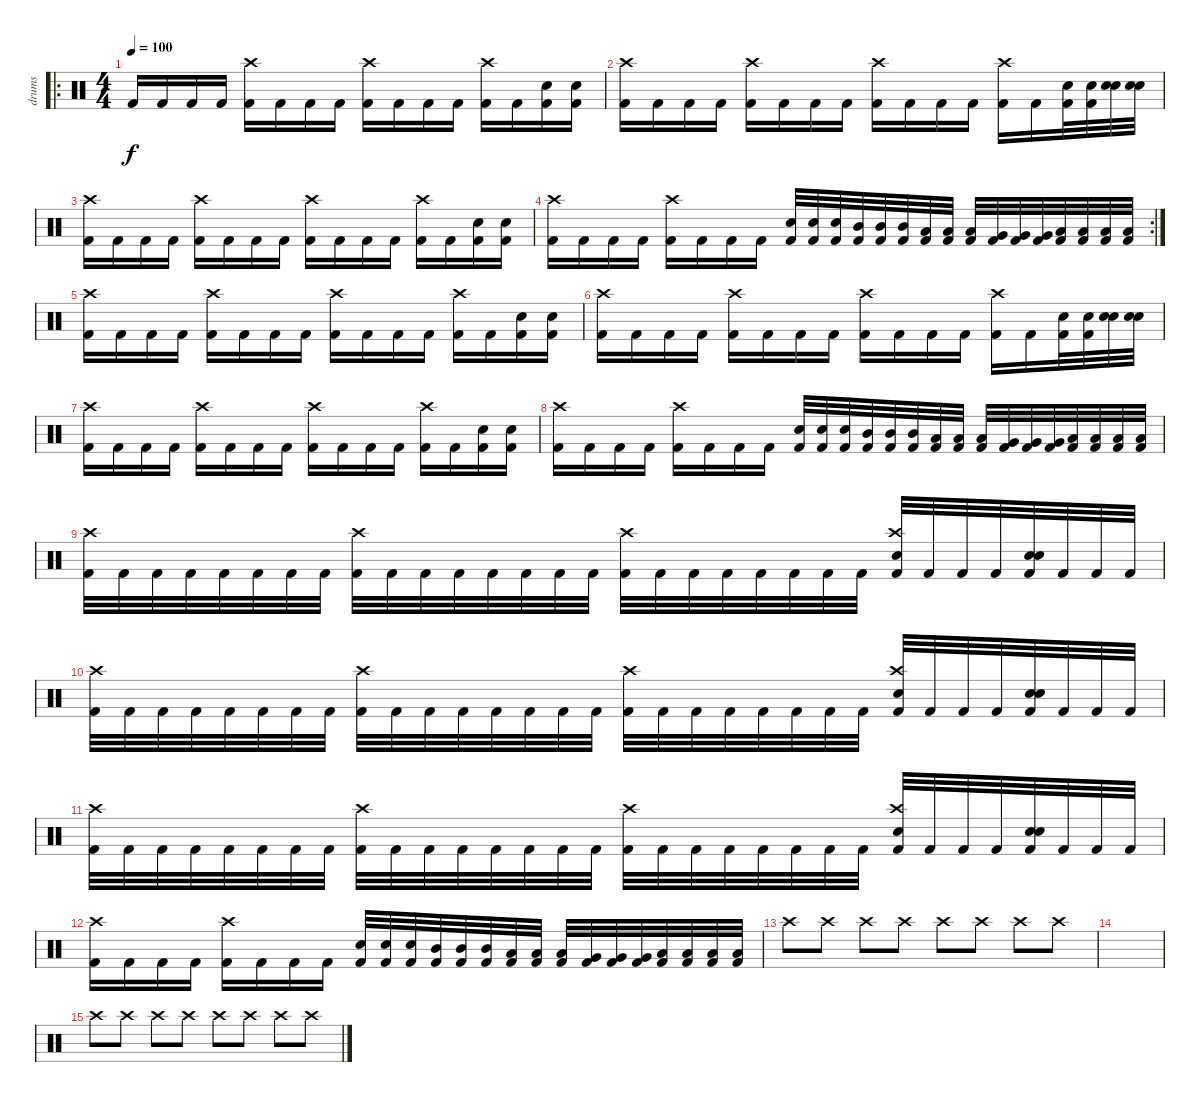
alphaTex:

\track ("drums " "drums ") {instrument percussion}
\staff {score}
\articulation defaults
\ro
\ts (4 4)
\tempo 100
\clef neutral
\ks c "Kick (hit) 2".16{dy f} "Kick (hit) 2".16 "Kick (hit) 2".16 "Kick (hit) 2".16
("Kick (hit) 2" "Crash high (hit)").16 "Kick (hit) 2".16 "Kick (hit) 2".16 "Kick (hit) 2".16 ("Kick (hit) 2" "Crash high (hit)").16 "Kick (hit) 2".16 "Kick (hit) 2".16 "Kick (hit) 2".16 ("Kick (hit) 2" "Crash high (hit)").16 "Kick (hit) 2".16 ("Kick (hit) 2" "Snare (hit) 2").16 ("Kick (hit) 2" "Snare (hit) 2").16 |
("Kick (hit) 2" "Crash high (hit)").16 "Kick (hit) 2".16 "Kick (hit) 2".16 "Kick (hit) 2".16 ("Kick (hit) 2" "Crash high (hit)").16 "Kick (hit) 2".16 "Kick (hit) 2".16 "Kick (hit) 2".16 ("Kick (hit) 2" "Crash high (hit)").16 "Kick (hit) 2".16 "Kick (hit) 2".16 "Kick (hit) 2".16 ("Kick (hit) 2" "Crash high (hit)").16 "Kick (hit) 2".16 ("Kick (hit) 2" "Snare (hit) 2").32 ("Kick (hit) 2" "Electric Snare (hit)").32 ("Snare (hit) 2" "Snare (hit) 2").32 ("Snare (hit) 2" "Electric Snare (hit)").32 |
("Kick (hit) 2" "Crash high (hit)").16 "Kick (hit) 2".16 "Kick (hit) 2".16 "Kick (hit) 2".16 ("Kick (hit) 2" "Crash high (hit)").16 "Kick (hit) 2".16 "Kick (hit) 2".16 "Kick (hit) 2".16 ("Kick (hit) 2" "Crash high (hit)").16 "Kick (hit) 2".16 "Kick (hit) 2".16 "Kick (hit) 2".16 ("Kick (hit) 2" "Crash high (hit)").16 "Kick (hit) 2".16 ("Kick (hit) 2" "Snare (hit) 2").16 ("Kick (hit) 2" "Snare (hit) 2").16 |
\rc 2
("Kick (hit) 2" "Crash high (hit)").16 "Kick (hit) 2".16 "Kick (hit) 2".16 "Kick (hit) 2".16 ("Kick (hit) 2" "Crash high (hit)").16 "Kick (hit) 2".16 "Kick (hit) 2".16 "Kick (hit) 2".16 ("Kick (hit) 2" "Snare (hit) 2").32 ("Kick (hit) 2" "Snare (hit) 2").32 ("Kick (hit) 2" "Snare (hit) 2").32 ("Kick (hit) 2" "Mid Tom (hit)").32 ("Kick (hit) 2" "Mid Tom (hit)").32 ("Kick (hit) 2" "Mid Tom (hit)").32 ("Kick (hit) 2" "Low Tom (hit)").32 ("Kick (hit) 2" "Low Tom (hit)").32 ("Kick (hit) 2" "Low Tom (hit)").32 ("Kick (hit) 2" "Very Low Tom (hit)").32 ("Kick (hit) 2" "Very Low Tom (hit)").32 ("Kick (hit) 2" "Very Low Tom (hit)").32 ("Kick (hit) 2" "Low Floor Tom (hit)").32 ("Kick (hit) 2" "Low Floor Tom (hit)").32 ("Kick (hit) 2" "Low Floor Tom (hit)").32 ("Kick (hit) 2" "Low Floor Tom (hit)").32 |
("Kick (hit) 2" "Crash high (hit)").16 "Kick (hit) 2".16 "Kick (hit) 2".16 "Kick (hit) 2".16 ("Kick (hit) 2" "Crash high (hit)").16 "Kick (hit) 2".16 "Kick (hit) 2".16 "Kick (hit) 2".16 ("Kick (hit) 2" "Crash high (hit)").16 "Kick (hit) 2".16 "Kick (hit) 2".16 "Kick (hit) 2".16 ("Kick (hit) 2" "Crash high (hit)").16 "Kick (hit) 2".16 ("Kick (hit) 2" "Snare (hit) 2").16 ("Kick (hit) 2" "Snare (hit) 2").16 |
("Kick (hit) 2" "Crash high (hit)").16 "Kick (hit) 2".16 "Kick (hit) 2".16 "Kick (hit) 2".16 ("Kick (hit) 2" "Crash high (hit)").16 "Kick (hit) 2".16 "Kick (hit) 2".16 "Kick (hit) 2".16 ("Kick (hit) 2" "Crash high (hit)").16 "Kick (hit) 2".16 "Kick (hit) 2".16 "Kick (hit) 2".16 ("Kick (hit) 2" "Crash high (hit)").16 "Kick (hit) 2".16 ("Kick (hit) 2" "Snare (hit) 2").32 ("Kick (hit) 2" "Electric Snare (hit)").32 ("Snare (hit) 2" "Snare (hit) 2").32 ("Snare (hit) 2" "Electric Snare (hit)").32 |
("Kick (hit) 2" "Crash high (hit)").16 "Kick (hit) 2".16 "Kick (hit) 2".16 "Kick (hit) 2".16 ("Kick (hit) 2" "Crash high (hit)").16 "Kick (hit) 2".16 "Kick (hit) 2".16 "Kick (hit) 2".16 ("Kick (hit) 2" "Crash high (hit)").16 "Kick (hit) 2".16 "Kick (hit) 2".16 "Kick (hit) 2".16 ("Kick (hit) 2" "Crash high (hit)").16 "Kick (hit) 2".16 ("Kick (hit) 2" "Snare (hit) 2").16 ("Kick (hit) 2" "Snare (hit) 2").16 |
("Kick (hit) 2" "Crash high (hit)").16 "Kick (hit) 2".16 "Kick (hit) 2".16 "Kick (hit) 2".16 ("Kick (hit) 2" "Crash high (hit)").16 "Kick (hit) 2".16 "Kick (hit) 2".16 "Kick (hit) 2".16 ("Kick (hit) 2" "Snare (hit) 2").32 ("Kick (hit) 2" "Snare (hit) 2").32 ("Kick (hit) 2" "Snare (hit) 2").32 ("Kick (hit) 2" "Mid Tom (hit)").32 ("Kick (hit) 2" "Mid Tom (hit)").32 ("Kick (hit) 2" "Mid Tom (hit)").32 ("Kick (hit) 2" "Low Tom (hit)").32 ("Kick (hit) 2" "Low Tom (hit)").32 ("Kick (hit) 2" "Low Tom (hit)").32 ("Kick (hit) 2" "Very Low Tom (hit)").32 ("Kick (hit) 2" "Very Low Tom (hit)").32 ("Kick (hit) 2" "Very Low Tom (hit)").32 ("Kick (hit) 2" "Low Floor Tom (hit)").32 ("Kick (hit) 2" "Low Floor Tom (hit)").32 ("Kick (hit) 2" "Low Floor Tom (hit)").32 ("Kick (hit) 2" "Low Floor Tom (hit)").32 |
("Kick (hit) 2" "Crash high (hit)").32 "Kick (hit) 2".32 "Kick (hit) 2".32 "Kick (hit) 2".32 "Kick (hit) 2".32 "Kick (hit) 2".32 "Kick (hit) 2".32 "Kick (hit) 2".32 ("Kick (hit) 2" "Crash high (hit)").32 "Kick (hit) 2".32 "Kick (hit) 2".32 "Kick (hit) 2".32 "Kick (hit) 2".32 "Kick (hit) 2".32 "Kick (hit) 2".32 "Kick (hit) 2".32 ("Kick (hit) 2" "Crash high (hit)").32 "Kick (hit) 2".32 "Kick (hit) 2".32 "Kick (hit) 2".32 "Kick (hit) 2".32 "Kick (hit) 2".32 "Kick (hit) 2".32 "Kick (hit) 2".32 ("Kick (hit) 2" "Crash high (hit)" "Electric Snare (hit)").32 "Kick (hit) 2".32 "Kick (hit) 2".32 "Kick (hit) 2".32 ("Kick (hit) 2" "Snare (hit) 2" "Electric Snare (hit)").32 "Kick (hit) 2".32 "Kick (hit) 2".32 "Kick (hit) 2".32 |
("Kick (hit) 2" "Crash high (hit)").32 "Kick (hit) 2".32 "Kick (hit) 2".32 "Kick (hit) 2".32 "Kick (hit) 2".32 "Kick (hit) 2".32 "Kick (hit) 2".32 "Kick (hit) 2".32 ("Kick (hit) 2" "Crash high (hit)").32 "Kick (hit) 2".32 "Kick (hit) 2".32 "Kick (hit) 2".32 "Kick (hit) 2".32 "Kick (hit) 2".32 "Kick (hit) 2".32 "Kick (hit) 2".32 ("Kick (hit) 2" "Crash high (hit)").32 "Kick (hit) 2".32 "Kick (hit) 2".32 "Kick (hit) 2".32 "Kick (hit) 2".32 "Kick (hit) 2".32 "Kick (hit) 2".32 "Kick (hit) 2".32 ("Kick (hit) 2" "Crash high (hit)" "Electric Snare (hit)").32 "Kick (hit) 2".32 "Kick (hit) 2".32 "Kick (hit) 2".32 ("Kick (hit) 2" "Snare (hit) 2" "Electric Snare (hit)").32 "Kick (hit) 2".32 "Kick (hit) 2".32 "Kick (hit) 2".32 |
("Kick (hit) 2" "Crash high (hit)").32 "Kick (hit) 2".32 "Kick (hit) 2".32 "Kick (hit) 2".32 "Kick (hit) 2".32 "Kick (hit) 2".32 "Kick (hit) 2".32 "Kick (hit) 2".32 ("Kick (hit) 2" "Crash high (hit)").32 "Kick (hit) 2".32 "Kick (hit) 2".32 "Kick (hit) 2".32 "Kick (hit) 2".32 "Kick (hit) 2".32 "Kick (hit) 2".32 "Kick (hit) 2".32 ("Kick (hit) 2" "Crash high (hit)").32 "Kick (hit) 2".32 "Kick (hit) 2".32 "Kick (hit) 2".32 "Kick (hit) 2".32 "Kick (hit) 2".32 "Kick (hit) 2".32 "Kick (hit) 2".32 ("Kick (hit) 2" "Crash high (hit)" "Electric Snare (hit)").32 "Kick (hit) 2".32 "Kick (hit) 2".32 "Kick (hit) 2".32 ("Kick (hit) 2" "Snare (hit) 2" "Electric Snare (hit)").32 "Kick (hit) 2".32 "Kick (hit) 2".32 "Kick (hit) 2".32 |
("Kick (hit) 2" "Crash high (hit)").16 "Kick (hit) 2".16 "Kick (hit) 2".16 "Kick (hit) 2".16 ("Kick (hit) 2" "Crash high (hit)").16 "Kick (hit) 2".16 "Kick (hit) 2".16 "Kick (hit) 2".16 ("Kick (hit) 2" "Snare (hit) 2").32 ("Kick (hit) 2" "Snare (hit) 2").32 ("Kick (hit) 2" "Snare (hit) 2").32 ("Kick (hit) 2" "Mid Tom (hit)").32 ("Kick (hit) 2" "Mid Tom (hit)").32 ("Kick (hit) 2" "Mid Tom (hit)").32 ("Kick (hit) 2" "Low Tom (hit)").32 ("Kick (hit) 2" "Low Tom (hit)").32 ("Kick (hit) 2" "Low Tom (hit)").32 ("Kick (hit) 2" "Very Low Tom (hit)").32 ("Kick (hit) 2" "Very Low Tom (hit)").32 ("Kick (hit) 2" "Very Low Tom (hit)").32 ("Kick (hit) 2" "Low Floor Tom (hit)").32 ("Kick (hit) 2" "Low Floor Tom (hit)").32 ("Kick (hit) 2" "Low Floor Tom (hit)").32 ("Kick (hit) 2" "Low Floor Tom (hit)").32 |
"Crash high (hit)".8{volume 0} "Crash high (hit)".8 "Crash high (hit)".8 "Crash high (hit)".8 "Crash high (hit)".8 "Crash high (hit)".8 "Crash high (hit)".8 "Crash high (hit)".8 |
|
"Crash high (hit)".8{volume 0} "Crash high (hit)".8 "Crash high (hit)".8 "Crash high (hit)".8 "Crash high (hit)".8 "Crash high (hit)".8 "Crash high (hit)".8 "Crash high (hit)".8
